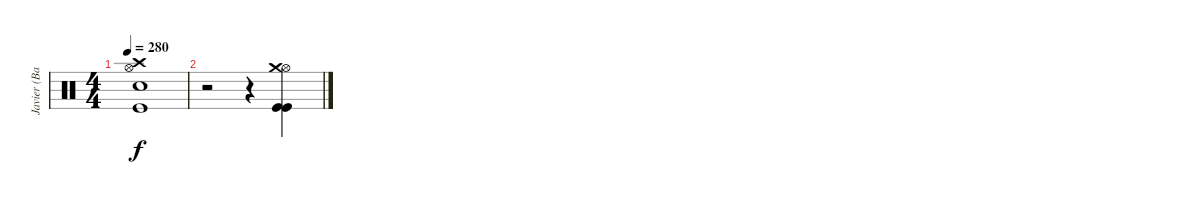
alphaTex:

\track ("Javier (Bateria)" "Javier (Ba") {instrument percussion}
\staff {score}
\articulation defaults
\ts (4 4)
\tempo 280
\clef neutral
\ks c
("Hi-Hat (open)" "Crash high (hit)" "Snare (hit) 2" "Kick (hit)").1{dy f} |
r.2 r.4 ("Hi-Hat (open)" "Kick (hit)" "Kick (hit)" "Crash medium (hit)").4
